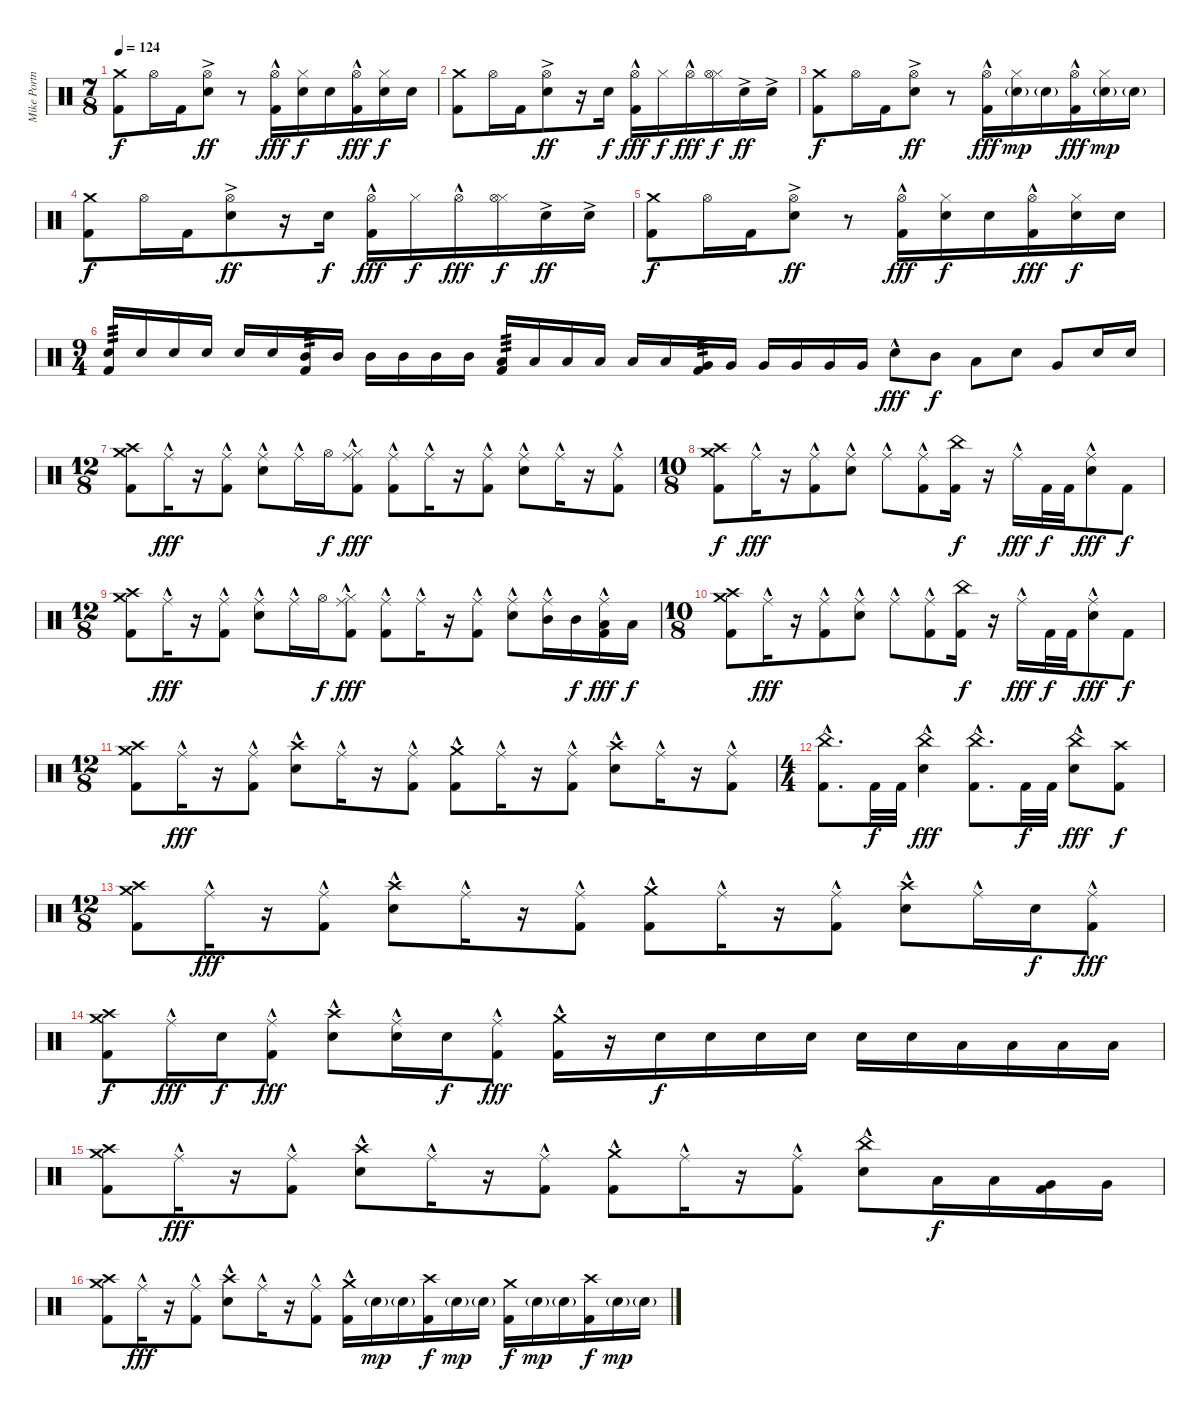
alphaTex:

\track ("Mike Portnoy Drums" "Mike Portn") {instrument percussion}
\staff {score}
\articulation defaults
\ts (7 8)
\tempo 124
\clef neutral
\ks c
("Crash medium (hit)" "Kick (hit) 2").8{dy f} "Hi-Hat (open)".16 "Kick (hit) 2".16 ("Hi-Hat (open)" "Electric Snare (hit)"{ac}).8{dy ff} r.8 ("Hi-Hat (open)"{hac} "Kick (hit) 2").16{dy fff} ("Hi-Hat (closed)" "Electric Snare (hit)").16{dy f} "Electric Snare (hit)".16 ("Hi-Hat (open)"{hac} "Kick (hit) 2").16{dy fff} ("Hi-Hat (closed)" "Electric Snare (hit)").16{dy f} "Electric Snare (hit)".16 |
("Crash medium (hit)" "Kick (hit) 2").8 "Hi-Hat (open)".16 "Kick (hit) 2".16 ("Hi-Hat (open)" "Electric Snare (hit)"{ac}).8{dy ff} r.16 "Electric Snare (hit)".16{dy f} ("Hi-Hat (open)"{hac} "Kick (hit) 2").16{dy fff} "Hi-Hat (closed)".16{dy f} "Hi-Hat (open)"{hac}.16{dy fff} ("Hi-Hat (closed)" "Hi-Hat (open)").16{dy f} "Electric Snare (hit)"{ac}.16{dy ff} "Electric Snare (hit)"{ac}.16 |
("Crash medium (hit)" "Kick (hit) 2").8{dy f} "Hi-Hat (open)".16 "Kick (hit) 2".16 ("Hi-Hat (open)" "Electric Snare (hit)"{ac}).8{dy ff} r.8 ("Hi-Hat (open)"{hac} "Kick (hit) 2").16{dy fff} ("Hi-Hat (closed)" "Electric Snare (hit)"{g}).16{dy mp} "Electric Snare (hit)"{g}.16 ("Hi-Hat (open)"{hac} "Kick (hit) 2").16{dy fff} ("Hi-Hat (closed)" "Electric Snare (hit)"{g}).16{dy mp} "Electric Snare (hit)"{g}.16 |
("Crash medium (hit)" "Kick (hit) 2").8{dy f} "Hi-Hat (open)".16 "Kick (hit) 2".16 ("Hi-Hat (open)" "Electric Snare (hit)"{ac}).8{dy ff} r.16 "Electric Snare (hit)".16{dy f} ("Hi-Hat (open)"{hac} "Kick (hit) 2").16{dy fff} "Hi-Hat (closed)".16{dy f} "Hi-Hat (open)"{hac}.16{dy fff} ("Hi-Hat (closed)" "Hi-Hat (open)").16{dy f} "Electric Snare (hit)"{ac}.16{dy ff} "Electric Snare (hit)"{ac}.16 |
("Crash medium (hit)" "Kick (hit) 2").8{dy f} "Hi-Hat (open)".16 "Kick (hit) 2".16 ("Hi-Hat (open)" "Electric Snare (hit)"{ac}).8{dy ff} r.8 ("Hi-Hat (open)"{hac} "Kick (hit) 2").16{dy fff} ("Hi-Hat (closed)" "Electric Snare (hit)").16{dy f} "Electric Snare (hit)".16 ("Hi-Hat (open)"{hac} "Kick (hit) 2").16{dy fff} ("Hi-Hat (closed)" "Electric Snare (hit)").16{dy f} "Electric Snare (hit)".16 |
\ts (9 4)
("Electric Snare (hit)" "Kick (hit) 2").16{tp 3} "Electric Snare (hit)".16 "Electric Snare (hit)".16 "Electric Snare (hit)".16 "Electric Snare (hit)".16 "Electric Snare (hit)".16 ("Mid Tom (hit)" "Kick (hit) 2").16{tp 3} "Mid Tom (hit)".16 "Mid Tom (hit)".16 "Mid Tom (hit)".16 "Mid Tom (hit)".16 "Mid Tom (hit)".16 ("Low Tom (hit)" "Kick (hit) 2").16{tp 3} "Low Tom (hit)".16 "Low Tom (hit)".16 "Low Tom (hit)".16 "Low Tom (hit)".16 "Low Tom (hit)".16 ("Very Low Tom (hit)" "Kick (hit) 2").16{tp 3} "Very Low Tom (hit)".16 "Very Low Tom (hit)".16 "Very Low Tom (hit)".16 "Very Low Tom (hit)".16 "Very Low Tom (hit)".16 "Electric Snare (hit)"{hac}.8{dy fff} "Mid Tom (hit)".8{dy f} "Low Tom (hit)".8 "Electric Snare (hit)".8 "Very Low Tom (hit)".8 "Electric Snare (hit)".16 "Electric Snare (hit)".16 |
\ts (12 8)
("Crash medium (hit)" "Crash high (hit)" "Kick (hit) 2").8 "Ride (middle)"{hac}.16{dy fff} r.16 ("Ride (middle)"{hac} "Kick (hit) 2").8 ("Ride (middle)"{hac} "Electric Snare (hit)").8 "Ride (middle)"{hac}.16 "Hi-Hat (open)".16{dy f} ("Ride (middle)"{hac} "Hi-Hat (closed)" "Kick (hit) 2").8{dy fff} ("Ride (middle)"{hac} "Kick (hit) 2").8 "Ride (middle)"{hac}.16 r.16 ("Ride (middle)"{hac} "Kick (hit) 2").8 ("Ride (middle)"{hac} "Electric Snare (hit)").8 "Ride (middle)"{hac}.16 r.16 ("Ride (middle)"{hac} "Kick (hit) 2").8 |
\ts (10 8)
("Crash medium (hit)" "Crash high (hit)" "Kick (hit) 2").8{dy f} "Ride (middle)"{hac}.16{dy fff} r.16 ("Ride (middle)"{hac} "Kick (hit) 2").8 ("Ride (middle)"{hac} "Electric Snare (hit)").8 "Ride (middle)"{hac}.8 ("Ride (middle)"{hac} "Kick (hit) 2").8 ("China (hit)" "Kick (hit) 2").16{dy f} r.16 "Ride (middle)"{hac}.16{dy fff} "Kick (hit) 2".32{dy f} "Kick (hit) 2".32 ("Ride (middle)"{hac} "Electric Snare (hit)"{hac}).8{dy fff} "Kick (hit) 2".8{dy f} |
\ts (12 8)
("Crash medium (hit)" "Crash high (hit)" "Kick (hit) 2").8 "Ride (middle)"{hac}.16{dy fff} r.16 ("Ride (middle)"{hac} "Kick (hit) 2").8 ("Ride (middle)"{hac} "Electric Snare (hit)").8 "Ride (middle)"{hac}.16 "Hi-Hat (open)".16{dy f} ("Ride (middle)"{hac} "Hi-Hat (closed)" "Kick (hit) 2").8{dy fff} ("Ride (middle)"{hac} "Kick (hit) 2").8 "Ride (middle)"{hac}.16 r.16 ("Ride (middle)"{hac} "Kick (hit) 2").8 ("Ride (middle)"{hac} "Electric Snare (hit)").8 ("Ride (middle)"{hac} "Mid Tom (hit)").16 "Mid Tom (hit)".16{dy f} ("Ride (middle)"{hac} "Low Tom (hit)" "Kick (hit) 2").16{dy fff} "Low Tom (hit)".16{dy f} |
\ts (10 8)
("Crash medium (hit)" "Crash high (hit)" "Kick (hit) 2").8 "Ride (middle)"{hac}.16{dy fff} r.16 ("Ride (middle)"{hac} "Kick (hit) 2").8 ("Ride (middle)"{hac} "Electric Snare (hit)").8 "Ride (middle)"{hac}.8 ("Ride (middle)"{hac} "Kick (hit) 2").8 ("China (hit)" "Kick (hit) 2").16{dy f} r.16 "Ride (middle)"{hac}.16{dy fff} "Kick (hit) 2".32{dy f} "Kick (hit) 2".32 ("Ride (middle)"{hac} "Electric Snare (hit)"{hac}).8{dy fff} "Kick (hit) 2".8{dy f} |
\ts (12 8)
("Crash medium (hit)" "Crash high (hit)" "Kick (hit) 2").8 "Ride (middle)"{hac}.16{dy fff} r.16 ("Ride (middle)"{hac} "Kick (hit) 2").8 ("Crash high (hit)"{hac} "Electric Snare (hit)").8 "Ride (middle)"{hac}.16 r.16 ("Ride (middle)"{hac} "Kick (hit) 2").8 ("Crash medium (hit)"{hac} "Kick (hit) 2").8 "Ride (middle)"{hac}.16 r.16 ("Ride (middle)"{hac} "Kick (hit) 2").8 ("Crash high (hit)"{hac} "Electric Snare (hit)").8 "Ride (middle)"{hac}.16 r.16 ("Ride (middle)"{hac} "Kick (hit) 2").8 |
\ts (4 4)
("China (hit)"{hac} "Kick (hit) 2").8{d} "Kick (hit) 2".32{dy f} "Kick (hit) 2".32 ("China (hit)"{hac} "Electric Snare (hit)"{hac}).4{dy fff} ("China (hit)"{hac} "Kick (hit) 2").8{d} "Kick (hit) 2".32{dy f} "Kick (hit) 2".32 ("China (hit)"{hac} "Electric Snare (hit)"{hac}).8{dy fff} ("Crash high (hit)" "Kick (hit) 2").8{dy f} |
\ts (12 8)
("Crash medium (hit)" "Crash high (hit)" "Kick (hit) 2").8 "Ride (middle)"{hac}.16{dy fff} r.16 ("Ride (middle)"{hac} "Kick (hit) 2").8 ("Crash high (hit)"{hac} "Electric Snare (hit)").8 "Ride (middle)"{hac}.16 r.16 ("Ride (middle)"{hac} "Kick (hit) 2").8 ("Crash medium (hit)"{hac} "Kick (hit) 2").8 "Ride (middle)"{hac}.16 r.16 ("Ride (middle)"{hac} "Kick (hit) 2").8 ("Crash high (hit)"{hac} "Electric Snare (hit)").8 "Ride (middle)"{hac}.16 "Electric Snare (hit)".16{dy f} ("Ride (middle)"{hac} "Kick (hit) 2").8{dy fff} |
("Crash medium (hit)" "Crash high (hit)" "Kick (hit) 2").8{dy f} "Ride (middle)"{hac}.16{dy fff} "Electric Snare (hit)".16{dy f} ("Ride (middle)"{hac} "Kick (hit) 2").8{dy fff} ("Crash high (hit)"{hac} "Electric Snare (hit)").8 ("Ride (middle)"{hac} "Electric Snare (hit)").16 "Electric Snare (hit)".16{dy f} ("Ride (middle)"{hac} "Kick (hit) 2").8{dy fff} ("Crash medium (hit)"{hac} "Kick (hit) 2").16 r.16 "Electric Snare (hit)".16{dy f} "Electric Snare (hit)".16 "Electric Snare (hit)".16 "Electric Snare (hit)".16 "Electric Snare (hit)".16 "Electric Snare (hit)".16 "Low Tom (hit)".16 "Low Tom (hit)".16 "Low Floor Tom (hit)".16 "Low Floor Tom (hit)".16 |
("Crash medium (hit)" "Crash high (hit)" "Kick (hit) 2").8 "Ride (middle)"{hac}.16{dy fff} r.16 ("Ride (middle)"{hac} "Kick (hit) 2").8 ("Crash high (hit)"{hac} "Electric Snare (hit)").8 "Ride (middle)"{hac}.16 r.16 ("Ride (middle)"{hac} "Kick (hit) 2").8 ("Crash medium (hit)"{hac} "Kick (hit) 2").8 "Ride (middle)"{hac}.16 r.16 ("Ride (middle)"{hac} "Kick (hit) 2").8 ("China (hit)"{hac} "Electric Snare (hit)").8 "Low Tom (hit)".16{dy f} "Low Tom (hit)".16 ("Very Low Tom (hit)" "Kick (hit) 2").16 "Very Low Tom (hit)".16 |
("Crash medium (hit)" "Crash high (hit)" "Kick (hit) 2").8 "Ride (middle)"{hac}.16{dy fff} r.16 ("Ride (middle)"{hac} "Kick (hit) 2").8 ("Crash high (hit)"{hac} "Electric Snare (hit)").8 "Ride (middle)"{hac}.16 r.16 ("Ride (middle)"{hac} "Kick (hit) 2").8 ("Crash medium (hit)"{hac} "Kick (hit) 2").16 "Electric Snare (hit)"{g}.16{dy mp} "Electric Snare (hit)"{g}.16 ("Crash high (hit)" "Kick (hit) 2").16{dy f} "Electric Snare (hit)"{g}.16{dy mp} "Electric Snare (hit)"{g}.16 ("Crash medium (hit)" "Kick (hit) 2").16{dy f} "Electric Snare (hit)"{g}.16{dy mp} "Electric Snare (hit)"{g}.16 ("Crash high (hit)" "Kick (hit) 2").16{dy f} "Electric Snare (hit)"{g}.16{dy mp} "Electric Snare (hit)"{g}.16
